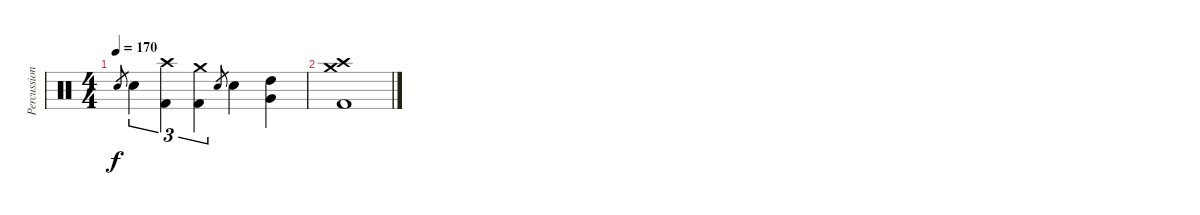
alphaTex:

\track ("Percussion" "Percussion") {instrument percussion}
\staff {score}
\articulation defaults
\ts (4 4)
\tempo 170
\clef neutral
\ks c "Snare (hit) 2".8{gr dy f} "Snare (hit) 2".4{tu (3 2)}
("Crash high (hit)" "Kick (hit) 2").4{tu (3 2)} ("Crash medium (hit)" "Kick (hit) 2").4{tu (3 2)} "Snare (hit) 2".8{gr} "Snare (hit) 2".4 ("High Tom (hit)" "Very Low Tom (hit)").4 |
("Kick (hit) 2" "Crash medium (hit)" "Crash high (hit)").1
